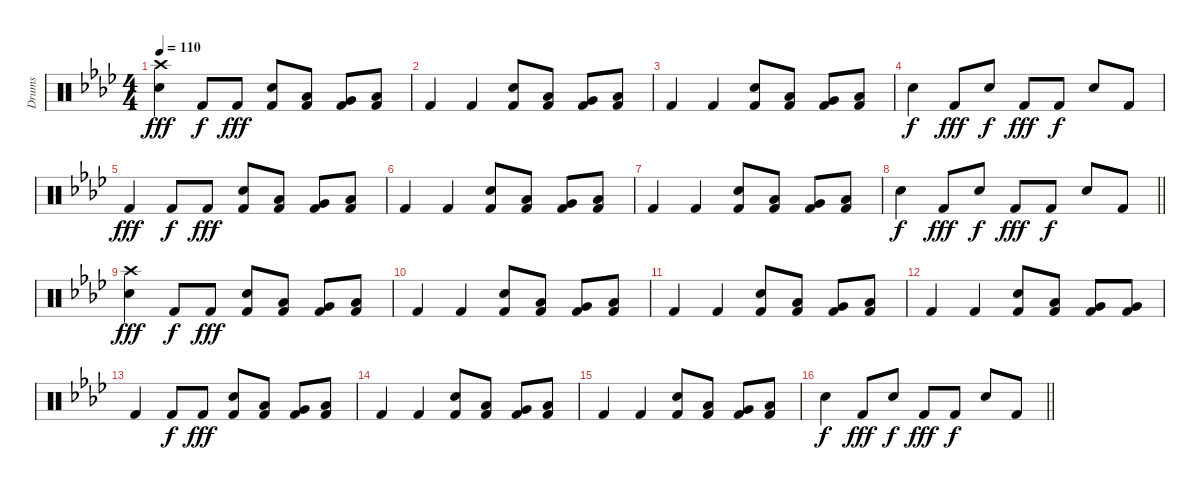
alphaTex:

\track ("Drums" "Drums") {instrument percussion}
\staff {score}
\articulation defaults
\ts (4 4)
\tempo 110
\clef neutral
\ks fminor
("Crash high (hit)" "Electric Snare (hit)").4{dy fff} "Kick (hit) 2".8{dy f} "Kick (hit) 2".8{dy fff} ("Electric Snare (hit)" "Kick (hit) 2").8 ("Low Tom (hit)" "Kick (hit) 2").8 ("Very Low Tom (hit)" "Kick (hit) 2").8 ("Low Tom (hit)" "Kick (hit) 2").8 |
"Kick (hit) 2".4 "Kick (hit) 2".4 ("Electric Snare (hit)" "Kick (hit) 2").8 ("Low Tom (hit)" "Kick (hit) 2").8 ("Very Low Tom (hit)" "Kick (hit) 2").8 ("Low Tom (hit)" "Kick (hit) 2").8 |
"Kick (hit) 2".4 "Kick (hit) 2".4 ("Electric Snare (hit)" "Kick (hit) 2").8 ("Low Tom (hit)" "Kick (hit) 2").8 ("Very Low Tom (hit)" "Kick (hit) 2").8 ("Low Tom (hit)" "Kick (hit) 2").8 |
"Electric Snare (hit)".4{dy f volume 12} "Kick (hit) 2".8{dy fff} "Electric Snare (hit)".8{dy f} "Kick (hit) 2".8{dy fff} "Kick (hit) 2".8{dy f} "Electric Snare (hit)".8 "Kick (hit) 2".8 |
"Kick (hit) 2".4{dy fff} "Kick (hit) 2".8{dy f} "Kick (hit) 2".8{dy fff} ("Electric Snare (hit)" "Kick (hit) 2").8 ("Low Tom (hit)" "Kick (hit) 2").8 ("Very Low Tom (hit)" "Kick (hit) 2").8 ("Low Tom (hit)" "Kick (hit) 2").8 |
"Kick (hit) 2".4 "Kick (hit) 2".4 ("Electric Snare (hit)" "Kick (hit) 2").8 ("Low Tom (hit)" "Kick (hit) 2").8 ("Very Low Tom (hit)" "Kick (hit) 2").8 ("Low Tom (hit)" "Kick (hit) 2").8 |
"Kick (hit) 2".4 "Kick (hit) 2".4 ("Electric Snare (hit)" "Kick (hit) 2").8 ("Low Tom (hit)" "Kick (hit) 2").8 ("Very Low Tom (hit)" "Kick (hit) 2").8 ("Low Tom (hit)" "Kick (hit) 2").8 |
\barLineRight lightlight "Electric Snare (hit)".4{dy f} "Kick (hit) 2".8{dy fff} "Electric Snare (hit)".8{dy f} "Kick (hit) 2".8{dy fff} "Kick (hit) 2".8{dy f} "Electric Snare (hit)".8 "Kick (hit) 2".8
|
("Crash high (hit)" "Electric Snare (hit)").4{dy fff volume 8} "Kick (hit) 2".8{dy f} "Kick (hit) 2".8{dy fff} ("Electric Snare (hit)" "Kick (hit) 2").8 ("Low Tom (hit)" "Kick (hit) 2").8 ("Very Low Tom (hit)" "Kick (hit) 2").8 ("Low Tom (hit)" "Kick (hit) 2").8 |
"Kick (hit) 2".4 "Kick (hit) 2".4 ("Electric Snare (hit)" "Kick (hit) 2").8 ("Low Tom (hit)" "Kick (hit) 2").8 ("Very Low Tom (hit)" "Kick (hit) 2").8 ("Low Tom (hit)" "Kick (hit) 2").8 |
"Kick (hit) 2".4 "Kick (hit) 2".4 ("Electric Snare (hit)" "Kick (hit) 2").8 ("Low Tom (hit)" "Kick (hit) 2").8 ("Very Low Tom (hit)" "Kick (hit) 2").8 ("Low Tom (hit)" "Kick (hit) 2").8 |
"Kick (hit) 2".4 "Kick (hit) 2".4 ("Electric Snare (hit)" "Kick (hit) 2").8 ("Low Tom (hit)" "Kick (hit) 2").8 ("Very Low Tom (hit)" "Kick (hit) 2").8 ("Very Low Tom (hit)" "Kick (hit) 2").8 |
"Kick (hit) 2".4 "Kick (hit) 2".8{dy f} "Kick (hit) 2".8{dy fff} ("Electric Snare (hit)" "Kick (hit) 2").8 ("Low Tom (hit)" "Kick (hit) 2").8 ("Very Low Tom (hit)" "Kick (hit) 2").8 ("Low Tom (hit)" "Kick (hit) 2").8 |
"Kick (hit) 2".4{volume 4} "Kick (hit) 2".4 ("Electric Snare (hit)" "Kick (hit) 2").8 ("Low Tom (hit)" "Kick (hit) 2").8 ("Very Low Tom (hit)" "Kick (hit) 2").8 ("Low Tom (hit)" "Kick (hit) 2").8 |
"Kick (hit) 2".4 "Kick (hit) 2".4 ("Electric Snare (hit)" "Kick (hit) 2").8 ("Low Tom (hit)" "Kick (hit) 2").8 ("Very Low Tom (hit)" "Kick (hit) 2").8 ("Low Tom (hit)" "Kick (hit) 2").8 |
\barLineRight lightlight "Electric Snare (hit)".4{dy f} "Kick (hit) 2".8{dy fff} "Electric Snare (hit)".8{dy f} "Kick (hit) 2".8{dy fff} "Kick (hit) 2".8{dy f} "Electric Snare (hit)".8 "Kick (hit) 2".8
